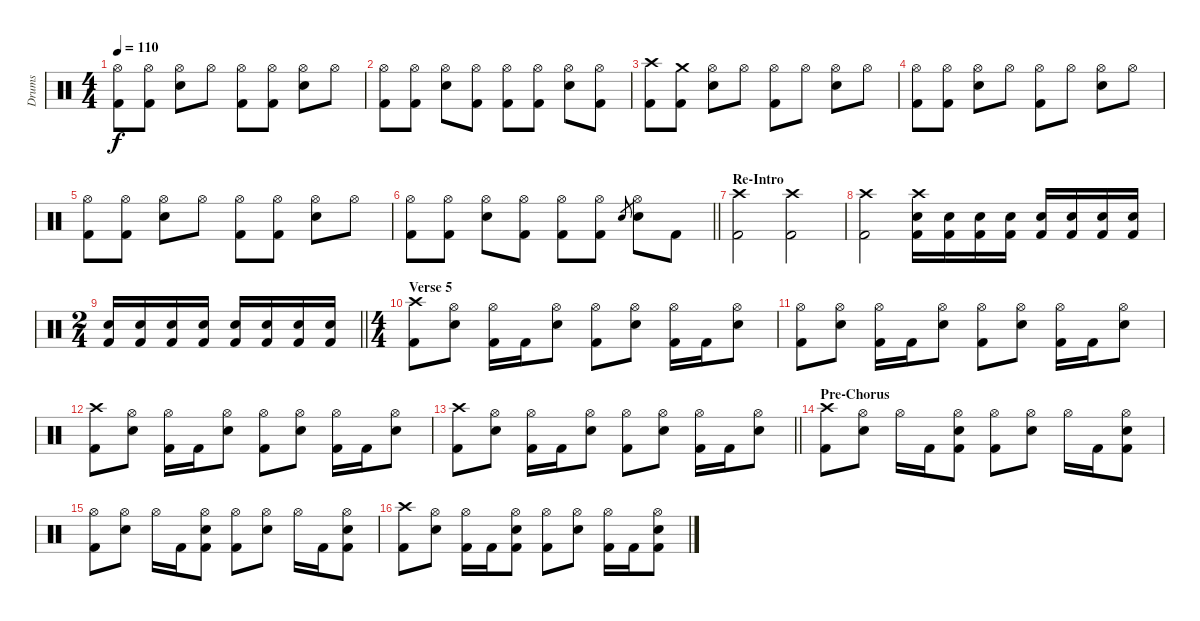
\track ("Drums" "Drums") {instrument percussion}
\staff {score}
\articulation defaults
\ts (4 4)
\tempo 110
\clef neutral
\ks c
("Hi-Hat (open)" "Kick (hit) 2").8{dy f} ("Hi-Hat (open)" "Kick (hit) 2").8 ("Hi-Hat (open)" "Electric Snare (hit)").8 "Hi-Hat (open)".8 ("Hi-Hat (open)" "Kick (hit) 2").8 ("Hi-Hat (open)" "Kick (hit) 2").8 ("Hi-Hat (open)" "Electric Snare (hit)").8 "Hi-Hat (open)".8 |
("Hi-Hat (open)" "Kick (hit) 2").8 ("Hi-Hat (open)" "Kick (hit) 2").8 ("Hi-Hat (open)" "Electric Snare (hit)").8 ("Hi-Hat (open)" "Kick (hit) 2").8 ("Hi-Hat (open)" "Kick (hit) 2").8 ("Hi-Hat (open)" "Kick (hit) 2").8 ("Hi-Hat (open)" "Electric Snare (hit)").8 ("Hi-Hat (open)" "Kick (hit) 2").8 |
("Crash high (hit)" "Kick (hit) 2").8 ("Crash medium (hit)" "Kick (hit) 2").8 ("Hi-Hat (open)" "Electric Snare (hit)").8 "Hi-Hat (open)".8 ("Hi-Hat (open)" "Kick (hit) 2").8 "Hi-Hat (open)".8 ("Hi-Hat (open)" "Electric Snare (hit)").8 "Hi-Hat (open)".8 |
("Hi-Hat (open)" "Kick (hit) 2").8 ("Hi-Hat (open)" "Kick (hit) 2").8 ("Hi-Hat (open)" "Electric Snare (hit)").8 "Hi-Hat (open)".8 ("Hi-Hat (open)" "Kick (hit) 2").8 "Hi-Hat (open)".8 ("Hi-Hat (open)" "Electric Snare (hit)").8 "Hi-Hat (open)".8 |
("Hi-Hat (open)" "Kick (hit) 2").8 ("Hi-Hat (open)" "Kick (hit) 2").8 ("Hi-Hat (open)" "Electric Snare (hit)").8 "Hi-Hat (open)".8 ("Hi-Hat (open)" "Kick (hit) 2").8 ("Hi-Hat (open)" "Kick (hit) 2").8 ("Hi-Hat (open)" "Electric Snare (hit)").8 "Hi-Hat (open)".8 |
\barLineRight lightlight
("Hi-Hat (open)" "Kick (hit) 2").8 ("Hi-Hat (open)" "Kick (hit) 2").8 ("Hi-Hat (open)" "Electric Snare (hit)").8 ("Hi-Hat (open)" "Kick (hit) 2").8 ("Hi-Hat (open)" "Kick (hit) 2").8 ("Hi-Hat (open)" "Kick (hit) 2").8 "Electric Snare (hit)".8{gr} ("Hi-Hat (open)" "Electric Snare (hit)").8 "Kick (hit) 2".8 |
\section ("" "Re-Intro")
("Crash high (hit)" "Kick (hit) 2").2 ("Crash high (hit)" "Kick (hit) 2").2 |
("Crash high (hit)" "Kick (hit) 2").2 ("Crash high (hit)" "Electric Snare (hit)" "Kick (hit) 2").16 ("Electric Snare (hit)" "Kick (hit) 2").16 ("Electric Snare (hit)" "Kick (hit) 2").16 ("Electric Snare (hit)" "Kick (hit) 2").16 ("Electric Snare (hit)" "Kick (hit) 2").16 ("Electric Snare (hit)" "Kick (hit) 2").16 ("Electric Snare (hit)" "Kick (hit) 2").16 ("Electric Snare (hit)" "Kick (hit) 2").16 |
\ts (2 4)
\barLineRight lightlight
("Electric Snare (hit)" "Kick (hit) 2").16 ("Electric Snare (hit)" "Kick (hit) 2").16 ("Electric Snare (hit)" "Kick (hit) 2").16 ("Electric Snare (hit)" "Kick (hit) 2").16 ("Electric Snare (hit)" "Kick (hit) 2").16 ("Electric Snare (hit)" "Kick (hit) 2").16 ("Electric Snare (hit)" "Kick (hit) 2").16 ("Electric Snare (hit)" "Kick (hit) 2").16 |
\ts (4 4)
\section ("" "Verse 5")
("Crash high (hit)" "Kick (hit) 2").8 ("Hi-Hat (open)" "Electric Snare (hit)").8 ("Hi-Hat (open)" "Kick (hit) 2").16 "Kick (hit) 2".16 ("Hi-Hat (open)" "Electric Snare (hit)").8 ("Hi-Hat (open)" "Kick (hit) 2").8 ("Hi-Hat (open)" "Electric Snare (hit)").8 ("Hi-Hat (open)" "Kick (hit) 2").16 "Kick (hit) 2".16 ("Hi-Hat (open)" "Electric Snare (hit)").8 |
("Hi-Hat (open)" "Kick (hit) 2").8 ("Hi-Hat (open)" "Electric Snare (hit)").8 ("Hi-Hat (open)" "Kick (hit) 2").16 "Kick (hit) 2".16 ("Hi-Hat (open)" "Electric Snare (hit)").8 ("Hi-Hat (open)" "Kick (hit) 2").8 ("Hi-Hat (open)" "Electric Snare (hit)").8 ("Hi-Hat (open)" "Kick (hit) 2").16 "Kick (hit) 2".16 ("Hi-Hat (open)" "Electric Snare (hit)").8 |
("Crash high (hit)" "Kick (hit) 2").8 ("Hi-Hat (open)" "Electric Snare (hit)").8 ("Hi-Hat (open)" "Kick (hit) 2").16 "Kick (hit) 2".16 ("Hi-Hat (open)" "Electric Snare (hit)").8 ("Hi-Hat (open)" "Kick (hit) 2").8 ("Hi-Hat (open)" "Electric Snare (hit)").8 ("Hi-Hat (open)" "Kick (hit) 2").16 "Kick (hit) 2".16 ("Hi-Hat (open)" "Electric Snare (hit)").8 |
\barLineRight lightlight
("Crash high (hit)" "Kick (hit) 2").8 ("Hi-Hat (open)" "Electric Snare (hit)").8 ("Hi-Hat (open)" "Kick (hit) 2").16 "Kick (hit) 2".16 ("Hi-Hat (open)" "Electric Snare (hit)").8 ("Hi-Hat (open)" "Kick (hit) 2").8 ("Hi-Hat (open)" "Electric Snare (hit)").8 ("Hi-Hat (open)" "Kick (hit) 2").16 "Kick (hit) 2".16 ("Hi-Hat (open)" "Electric Snare (hit)").8 |
\section ("" "Pre-Chorus")
("Crash high (hit)" "Kick (hit) 2").8 ("Hi-Hat (open)" "Electric Snare (hit)").8 "Hi-Hat (open)".16 "Kick (hit) 2".16 ("Hi-Hat (open)" "Electric Snare (hit)" "Kick (hit) 2").8 ("Hi-Hat (open)" "Kick (hit) 2").8 ("Hi-Hat (open)" "Electric Snare (hit)").8 "Hi-Hat (open)".16 "Kick (hit) 2".16 ("Hi-Hat (open)" "Electric Snare (hit)" "Kick (hit) 2").8 |
("Hi-Hat (open)" "Kick (hit) 2").8 ("Hi-Hat (open)" "Electric Snare (hit)").8 "Hi-Hat (open)".16 "Kick (hit) 2".16 ("Hi-Hat (open)" "Electric Snare (hit)" "Kick (hit) 2").8 ("Hi-Hat (open)" "Kick (hit) 2").8 ("Hi-Hat (open)" "Electric Snare (hit)").8 "Hi-Hat (open)".16 "Kick (hit) 2".16 ("Hi-Hat (open)" "Electric Snare (hit)" "Kick (hit) 2").8 |
("Crash high (hit)" "Kick (hit) 2").8 ("Hi-Hat (open)" "Electric Snare (hit)").8 ("Hi-Hat (open)" "Kick (hit) 2").16 "Kick (hit) 2".16 ("Hi-Hat (open)" "Electric Snare (hit)" "Kick (hit) 2").8 ("Hi-Hat (open)" "Kick (hit) 2").8 ("Hi-Hat (open)" "Electric Snare (hit)").8 ("Hi-Hat (open)" "Kick (hit) 2").16 "Kick (hit) 2".16 ("Hi-Hat (open)" "Electric Snare (hit)" "Kick (hit) 2").8
